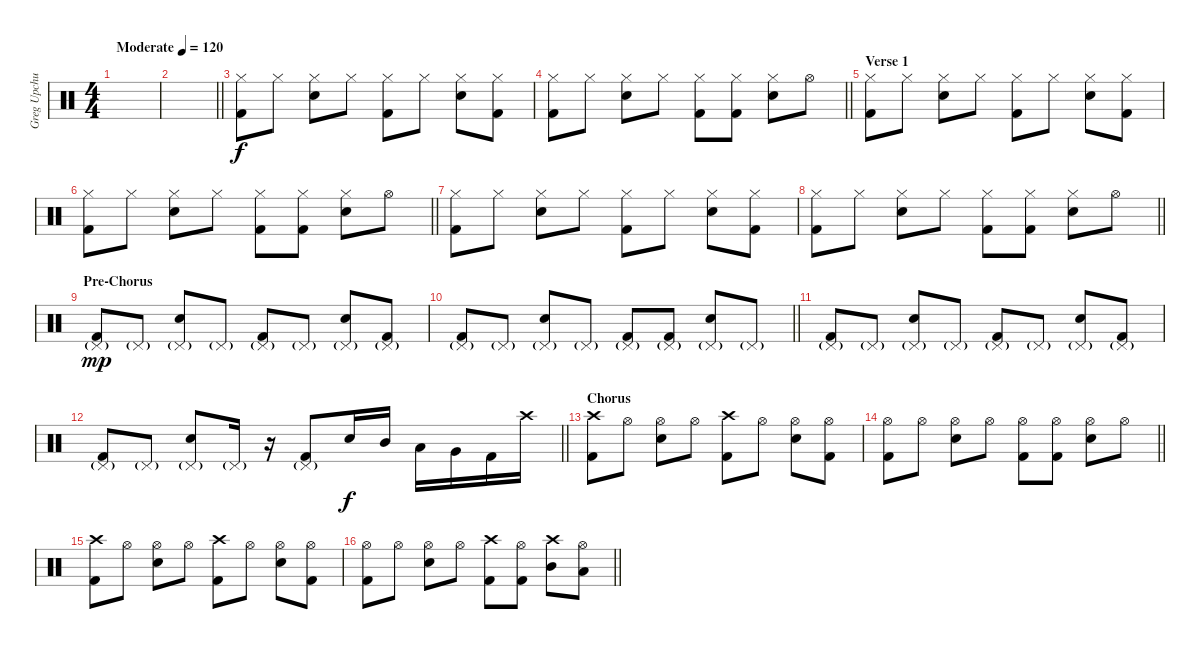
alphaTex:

\track ("Greg Upchurch(drums)" "Greg Upchu") {instrument percussion}
\staff {score}
\articulation defaults
\ts (4 4)
\tempo (120 "Moderate")
\tempo 73
\tempo (120 "Moderate")
\clef neutral
\ks c
|
\barLineRight lightlight
|
\section ("" "")
("Hi-Hat (closed)" "Kick (hit) 2").8 "Hi-Hat (closed)".8 ("Hi-Hat (closed)" "Snare (hit) 2").8 "Hi-Hat (closed)".8 ("Hi-Hat (closed)" "Kick (hit) 2").8 "Hi-Hat (closed)".8 ("Hi-Hat (closed)" "Snare (hit) 2").8 ("Hi-Hat (closed)" "Kick (hit) 2").8 |
\barLineRight lightlight
("Hi-Hat (closed)" "Kick (hit) 2").8 "Hi-Hat (closed)".8 ("Hi-Hat (closed)" "Snare (hit) 2").8 "Hi-Hat (closed)".8 ("Hi-Hat (closed)" "Kick (hit) 2").8 ("Hi-Hat (closed)" "Kick (hit) 2").8 ("Hi-Hat (closed)" "Snare (hit) 2").8 "Hi-Hat (open)".8 |
\section ("" "Verse 1")
("Hi-Hat (closed)" "Kick (hit) 2").8 "Hi-Hat (closed)".8 ("Hi-Hat (closed)" "Snare (hit) 2").8 "Hi-Hat (closed)".8 ("Hi-Hat (closed)" "Kick (hit) 2").8 "Hi-Hat (closed)".8 ("Hi-Hat (closed)" "Snare (hit) 2").8 ("Hi-Hat (closed)" "Kick (hit) 2").8 |
\barLineRight lightlight
("Hi-Hat (closed)" "Kick (hit) 2").8 "Hi-Hat (closed)".8 ("Hi-Hat (closed)" "Snare (hit) 2").8 "Hi-Hat (closed)".8 ("Hi-Hat (closed)" "Kick (hit) 2").8 ("Hi-Hat (closed)" "Kick (hit) 2").8 ("Hi-Hat (closed)" "Snare (hit) 2").8 "Hi-Hat (open)".8 |
("Hi-Hat (closed)" "Kick (hit) 2").8 "Hi-Hat (closed)".8 ("Hi-Hat (closed)" "Snare (hit) 2").8 "Hi-Hat (closed)".8 ("Hi-Hat (closed)" "Kick (hit) 2").8 "Hi-Hat (closed)".8 ("Hi-Hat (closed)" "Snare (hit) 2").8 ("Hi-Hat (closed)" "Kick (hit) 2").8 |
\barLineRight lightlight
("Hi-Hat (closed)" "Kick (hit) 2").8 "Hi-Hat (closed)".8 ("Hi-Hat (closed)" "Snare (hit) 2").8 "Hi-Hat (closed)".8 ("Hi-Hat (closed)" "Kick (hit) 2").8 ("Hi-Hat (closed)" "Kick (hit) 2").8 ("Hi-Hat (closed)" "Snare (hit) 2").8 "Hi-Hat (open)".8 |
\section ("" "Pre-Chorus")
("Pedal Hi-Hat (hit)"{g} "Kick (hit) 2").8{dy mp} "Pedal Hi-Hat (hit)"{g}.8 ("Pedal Hi-Hat (hit)"{g} "Snare (hit) 2").8 "Pedal Hi-Hat (hit)"{g}.8 ("Pedal Hi-Hat (hit)"{g} "Kick (hit) 2").8 "Pedal Hi-Hat (hit)"{g}.8 ("Pedal Hi-Hat (hit)"{g} "Snare (hit) 2").8 ("Pedal Hi-Hat (hit)"{g} "Kick (hit) 2").8 |
\barLineRight lightlight
("Pedal Hi-Hat (hit)"{g} "Kick (hit) 2").8 "Pedal Hi-Hat (hit)"{g}.8 ("Pedal Hi-Hat (hit)"{g} "Snare (hit) 2").8 "Pedal Hi-Hat (hit)"{g}.8 ("Pedal Hi-Hat (hit)"{g} "Kick (hit) 2").8 ("Pedal Hi-Hat (hit)"{g} "Kick (hit) 2").8 ("Pedal Hi-Hat (hit)"{g} "Snare (hit) 2").8 "Pedal Hi-Hat (hit)"{g}.8 |
("Pedal Hi-Hat (hit)"{g} "Kick (hit) 2").8 "Pedal Hi-Hat (hit)"{g}.8 ("Pedal Hi-Hat (hit)"{g} "Snare (hit) 2").8 "Pedal Hi-Hat (hit)"{g}.8 ("Pedal Hi-Hat (hit)"{g} "Kick (hit) 2").8 "Pedal Hi-Hat (hit)"{g}.8 ("Pedal Hi-Hat (hit)"{g} "Snare (hit) 2").8 ("Pedal Hi-Hat (hit)"{g} "Kick (hit) 2").8 |
\barLineRight lightlight
("Pedal Hi-Hat (hit)"{g} "Kick (hit) 2").8 "Pedal Hi-Hat (hit)"{g}.8 ("Pedal Hi-Hat (hit)"{g} "Snare (hit) 2").8 "Pedal Hi-Hat (hit)"{g}.16 r.16 ("Pedal Hi-Hat (hit)"{g} "Kick (hit) 2").8 "Snare (hit) 2".16{dy f} "Mid Tom (hit)".16 "Low Tom (hit)".16 "Very Low Tom (hit)".16 "Kick (hit) 2".16 "Crash high (hit)".16 |
\section ("" "Chorus")
("Crash high (hit)" "Kick (hit) 2").8 "Hi-Hat (open)".8 ("Hi-Hat (open)" "Snare (hit) 2").8 "Hi-Hat (open)".8 ("Crash high (hit)" "Kick (hit) 2").8 "Hi-Hat (open)".8 ("Hi-Hat (open)" "Snare (hit) 2").8 ("Hi-Hat (open)" "Kick (hit) 2").8 |
\barLineRight lightlight
("Hi-Hat (open)" "Kick (hit) 2").8 "Hi-Hat (open)".8 ("Hi-Hat (open)" "Snare (hit) 2").8 "Hi-Hat (open)".8 ("Hi-Hat (open)" "Kick (hit) 2").8 ("Hi-Hat (open)" "Kick (hit) 2").8 ("Hi-Hat (open)" "Snare (hit) 2").8 "Hi-Hat (open)".8 |
("Crash high (hit)" "Kick (hit) 2").8 "Hi-Hat (open)".8 ("Hi-Hat (open)" "Snare (hit) 2").8 "Hi-Hat (open)".8 ("Crash high (hit)" "Kick (hit) 2").8 "Hi-Hat (open)".8 ("Hi-Hat (open)" "Snare (hit) 2").8 ("Hi-Hat (open)" "Kick (hit) 2").8 |
\barLineRight lightlight
("Hi-Hat (open)" "Kick (hit) 2").8 "Hi-Hat (open)".8 ("Hi-Hat (open)" "Snare (hit) 2").8 "Hi-Hat (open)".8 ("Crash high (hit)" "Kick (hit) 2").8 ("Hi-Hat (open)" "Kick (hit) 2").8 ("Crash high (hit)" "Mid Tom (hit)").8 ("Hi-Hat (open)" "Low Tom (hit)").8
